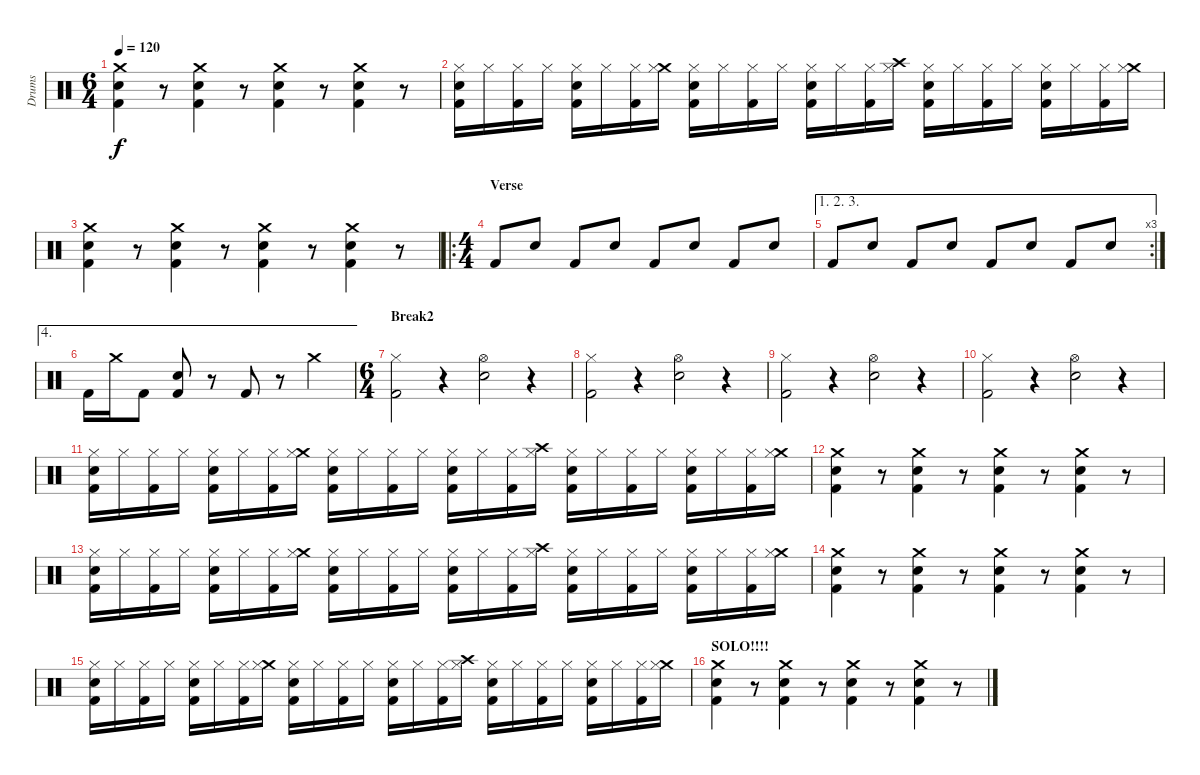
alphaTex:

\track ("Drums" "Drums") {instrument percussion}
\staff {score}
\articulation defaults
\ts (6 4)
\tempo 120
\clef neutral
\ks c
("Crash medium (hit)" "Snare (hit) 2" "Kick (hit) 2").4{dy f} r.8 ("Crash medium (hit)" "Snare (hit) 2" "Kick (hit) 2").4 r.8 ("Crash medium (hit)" "Snare (hit) 2" "Kick (hit) 2").4 r.8 ("Crash medium (hit)" "Snare (hit) 2" "Kick (hit) 2").4 r.8 |
("Hi-Hat (closed)" "Snare (hit) 2" "Kick (hit) 2").16 "Hi-Hat (closed)".16 ("Hi-Hat (closed)" "Kick (hit) 2").16 "Hi-Hat (closed)".16 ("Hi-Hat (closed)" "Snare (hit) 2" "Kick (hit) 2").16 "Hi-Hat (closed)".16 ("Hi-Hat (closed)" "Kick (hit) 2").16 ("Crash medium (hit)" "Hi-Hat (closed)").16 ("Hi-Hat (closed)" "Snare (hit) 2" "Kick (hit) 2").16 "Hi-Hat (closed)".16 ("Hi-Hat (closed)" "Kick (hit) 2").16 "Hi-Hat (closed)".16 ("Hi-Hat (closed)" "Snare (hit) 2" "Kick (hit) 2").16 "Hi-Hat (closed)".16 ("Hi-Hat (closed)" "Kick (hit) 2").16 ("Crash high (hit)" "Hi-Hat (closed)").16 ("Hi-Hat (closed)" "Snare (hit) 2" "Kick (hit) 2").16 "Hi-Hat (closed)".16 ("Hi-Hat (closed)" "Kick (hit) 2").16 "Hi-Hat (closed)".16 ("Hi-Hat (closed)" "Snare (hit) 2" "Kick (hit) 2").16 "Hi-Hat (closed)".16 ("Hi-Hat (closed)" "Kick (hit) 2").16 ("Crash medium (hit)" "Hi-Hat (closed)").16 |
("Crash medium (hit)" "Snare (hit) 2" "Kick (hit) 2").4 r.8 ("Crash medium (hit)" "Snare (hit) 2" "Kick (hit) 2").4 r.8 ("Crash medium (hit)" "Snare (hit) 2" "Kick (hit) 2").4 r.8 ("Crash medium (hit)" "Snare (hit) 2" "Kick (hit) 2").4 r.8 |
\ro
\ts (4 4)
\section ("" "Verse")
"Kick (hit) 2".8 "Snare (hit) 2".8 "Kick (hit) 2".8 "Snare (hit) 2".8 "Kick (hit) 2".8 "Snare (hit) 2".8 "Kick (hit) 2".8 "Snare (hit) 2".8 |
\ae (1 2 3)
\rc 3 "Kick (hit) 2".8 "Snare (hit) 2".8 "Kick (hit) 2".8 "Snare (hit) 2".8 "Kick (hit) 2".8 "Snare (hit) 2".8 "Kick (hit) 2".8 "Snare (hit) 2".8
|
\ae 4 "Kick (hit) 2".16 "Crash medium (hit)".16 "Kick (hit) 2".8
("Snare (hit) 2" "Kick (hit) 2").8 r.8 "Kick (hit) 2".8 r.8 "Crash medium (hit)".4 |
\ts (6 4)
\section ("" "Break2")
("Hi-Hat (closed)" "Kick (hit) 2").2 r.4 ("Hi-Hat (open)" "Snare (hit) 2").2 r.4 |
("Hi-Hat (closed)" "Kick (hit) 2").2 r.4 ("Hi-Hat (open)" "Snare (hit) 2").2 r.4 |
("Hi-Hat (closed)" "Kick (hit) 2").2 r.4 ("Hi-Hat (open)" "Snare (hit) 2").2 r.4 |
("Hi-Hat (closed)" "Kick (hit) 2").2 r.4 ("Hi-Hat (open)" "Snare (hit) 2").2 r.4 |
("Hi-Hat (closed)" "Snare (hit) 2" "Kick (hit) 2").16 "Hi-Hat (closed)".16 ("Hi-Hat (closed)" "Kick (hit) 2").16 "Hi-Hat (closed)".16 ("Hi-Hat (closed)" "Snare (hit) 2" "Kick (hit) 2").16 "Hi-Hat (closed)".16 ("Hi-Hat (closed)" "Kick (hit) 2").16 ("Crash medium (hit)" "Hi-Hat (closed)").16 ("Hi-Hat (closed)" "Snare (hit) 2" "Kick (hit) 2").16 "Hi-Hat (closed)".16 ("Hi-Hat (closed)" "Kick (hit) 2").16 "Hi-Hat (closed)".16 ("Hi-Hat (closed)" "Snare (hit) 2" "Kick (hit) 2").16 "Hi-Hat (closed)".16 ("Hi-Hat (closed)" "Kick (hit) 2").16 ("Crash high (hit)" "Hi-Hat (closed)").16 ("Hi-Hat (closed)" "Snare (hit) 2" "Kick (hit) 2").16 "Hi-Hat (closed)".16 ("Hi-Hat (closed)" "Kick (hit) 2").16 "Hi-Hat (closed)".16 ("Hi-Hat (closed)" "Snare (hit) 2" "Kick (hit) 2").16 "Hi-Hat (closed)".16 ("Hi-Hat (closed)" "Kick (hit) 2").16 ("Crash medium (hit)" "Hi-Hat (closed)").16 |
("Crash medium (hit)" "Snare (hit) 2" "Kick (hit) 2").4 r.8 ("Crash medium (hit)" "Snare (hit) 2" "Kick (hit) 2").4 r.8 ("Crash medium (hit)" "Snare (hit) 2" "Kick (hit) 2").4 r.8 ("Crash medium (hit)" "Snare (hit) 2" "Kick (hit) 2").4 r.8 |
("Hi-Hat (closed)" "Snare (hit) 2" "Kick (hit) 2").16 "Hi-Hat (closed)".16 ("Hi-Hat (closed)" "Kick (hit) 2").16 "Hi-Hat (closed)".16 ("Hi-Hat (closed)" "Snare (hit) 2" "Kick (hit) 2").16 "Hi-Hat (closed)".16 ("Hi-Hat (closed)" "Kick (hit) 2").16 ("Crash medium (hit)" "Hi-Hat (closed)").16 ("Hi-Hat (closed)" "Snare (hit) 2" "Kick (hit) 2").16 "Hi-Hat (closed)".16 ("Hi-Hat (closed)" "Kick (hit) 2").16 "Hi-Hat (closed)".16 ("Hi-Hat (closed)" "Snare (hit) 2" "Kick (hit) 2").16 "Hi-Hat (closed)".16 ("Hi-Hat (closed)" "Kick (hit) 2").16 ("Crash high (hit)" "Hi-Hat (closed)").16 ("Hi-Hat (closed)" "Snare (hit) 2" "Kick (hit) 2").16 "Hi-Hat (closed)".16 ("Hi-Hat (closed)" "Kick (hit) 2").16 "Hi-Hat (closed)".16 ("Hi-Hat (closed)" "Snare (hit) 2" "Kick (hit) 2").16 "Hi-Hat (closed)".16 ("Hi-Hat (closed)" "Kick (hit) 2").16 ("Crash medium (hit)" "Hi-Hat (closed)").16 |
("Crash medium (hit)" "Snare (hit) 2" "Kick (hit) 2").4 r.8 ("Crash medium (hit)" "Snare (hit) 2" "Kick (hit) 2").4 r.8 ("Crash medium (hit)" "Snare (hit) 2" "Kick (hit) 2").4 r.8 ("Crash medium (hit)" "Snare (hit) 2" "Kick (hit) 2").4 r.8 |
("Hi-Hat (closed)" "Snare (hit) 2" "Kick (hit) 2").16 "Hi-Hat (closed)".16 ("Hi-Hat (closed)" "Kick (hit) 2").16 "Hi-Hat (closed)".16 ("Hi-Hat (closed)" "Snare (hit) 2" "Kick (hit) 2").16 "Hi-Hat (closed)".16 ("Hi-Hat (closed)" "Kick (hit) 2").16 ("Crash medium (hit)" "Hi-Hat (closed)").16 ("Hi-Hat (closed)" "Snare (hit) 2" "Kick (hit) 2").16 "Hi-Hat (closed)".16 ("Hi-Hat (closed)" "Kick (hit) 2").16 "Hi-Hat (closed)".16 ("Hi-Hat (closed)" "Snare (hit) 2" "Kick (hit) 2").16 "Hi-Hat (closed)".16 ("Hi-Hat (closed)" "Kick (hit) 2").16 ("Crash high (hit)" "Hi-Hat (closed)").16 ("Hi-Hat (closed)" "Snare (hit) 2" "Kick (hit) 2").16 "Hi-Hat (closed)".16 ("Hi-Hat (closed)" "Kick (hit) 2").16 "Hi-Hat (closed)".16 ("Hi-Hat (closed)" "Snare (hit) 2" "Kick (hit) 2").16 "Hi-Hat (closed)".16 ("Hi-Hat (closed)" "Kick (hit) 2").16 ("Crash medium (hit)" "Hi-Hat (closed)").16 |
\section ("" "SOLO!!!!")
("Crash medium (hit)" "Snare (hit) 2" "Kick (hit) 2").4 r.8 ("Crash medium (hit)" "Snare (hit) 2" "Kick (hit) 2").4 r.8 ("Crash medium (hit)" "Snare (hit) 2" "Kick (hit) 2").4 r.8 ("Crash medium (hit)" "Snare (hit) 2" "Kick (hit) 2").4 r.8
